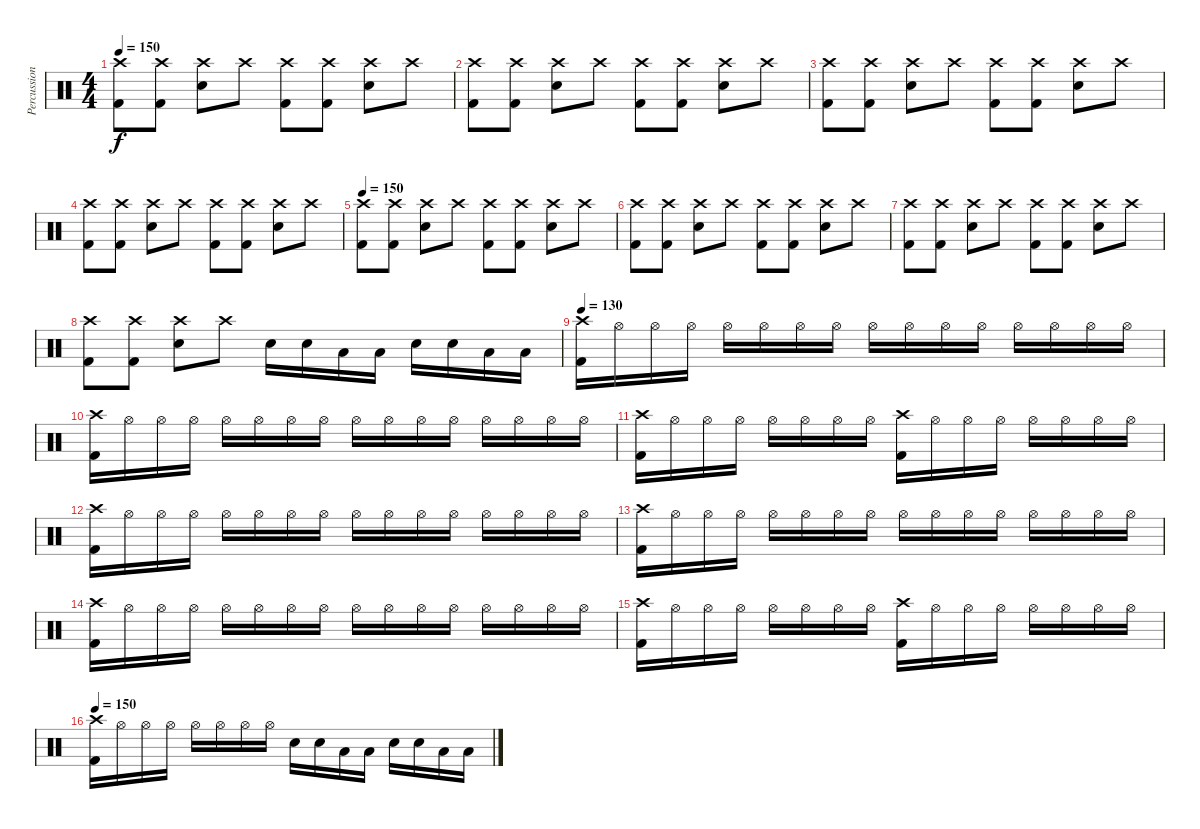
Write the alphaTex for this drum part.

\track ("Percussion" "Percussion") {instrument percussion}
\staff {score}
\articulation defaults
\ts (4 4)
\tempo 150
\clef neutral
\ks c
("Crash high (hit)" "Kick (hit) 2").8{dy f} ("Crash high (hit)" "Kick (hit) 2").8 ("Crash high (hit)" "Electric Snare (hit)").8 "Crash high (hit)".8 ("Crash high (hit)" "Kick (hit) 2").8 ("Crash high (hit)" "Kick (hit) 2").8 ("Crash high (hit)" "Electric Snare (hit)").8 "Crash high (hit)".8 |
("Crash high (hit)" "Kick (hit) 2").8 ("Crash high (hit)" "Kick (hit) 2").8 ("Crash high (hit)" "Electric Snare (hit)").8 "Crash high (hit)".8 ("Crash high (hit)" "Kick (hit) 2").8 ("Crash high (hit)" "Kick (hit) 2").8 ("Crash high (hit)" "Electric Snare (hit)").8 "Crash high (hit)".8 |
("Crash high (hit)" "Kick (hit) 2").8 ("Crash high (hit)" "Kick (hit) 2").8 ("Crash high (hit)" "Electric Snare (hit)").8 "Crash high (hit)".8 ("Crash high (hit)" "Kick (hit) 2").8 ("Crash high (hit)" "Kick (hit) 2").8 ("Crash high (hit)" "Electric Snare (hit)").8 "Crash high (hit)".8 |
("Crash high (hit)" "Kick (hit) 2").8 ("Crash high (hit)" "Kick (hit) 2").8 ("Crash high (hit)" "Electric Snare (hit)").8 "Crash high (hit)".8 ("Crash high (hit)" "Kick (hit) 2").8 ("Crash high (hit)" "Kick (hit) 2").8 ("Crash high (hit)" "Electric Snare (hit)").8 "Crash high (hit)".8 |
\tempo 150
("Crash high (hit)" "Kick (hit) 2").8 ("Crash high (hit)" "Kick (hit) 2").8 ("Crash high (hit)" "Electric Snare (hit)").8 "Crash high (hit)".8 ("Crash high (hit)" "Kick (hit) 2").8 ("Crash high (hit)" "Kick (hit) 2").8 ("Crash high (hit)" "Electric Snare (hit)").8 "Crash high (hit)".8 |
("Crash high (hit)" "Kick (hit) 2").8 ("Crash high (hit)" "Kick (hit) 2").8 ("Crash high (hit)" "Electric Snare (hit)").8 "Crash high (hit)".8 ("Crash high (hit)" "Kick (hit) 2").8 ("Crash high (hit)" "Kick (hit) 2").8 ("Crash high (hit)" "Electric Snare (hit)").8 "Crash high (hit)".8 |
("Crash high (hit)" "Kick (hit) 2").8 ("Crash high (hit)" "Kick (hit) 2").8 ("Crash high (hit)" "Electric Snare (hit)").8 "Crash high (hit)".8 ("Crash high (hit)" "Kick (hit) 2").8 ("Crash high (hit)" "Kick (hit) 2").8 ("Crash high (hit)" "Electric Snare (hit)").8 "Crash high (hit)".8 |
("Crash high (hit)" "Kick (hit) 2").8 ("Crash high (hit)" "Kick (hit) 2").8 ("Crash high (hit)" "Electric Snare (hit)").8 "Crash high (hit)".8 "Electric Snare (hit)".16 "Electric Snare (hit)".16 "Low Tom (hit)".16 "Low Tom (hit)".16 "Electric Snare (hit)".16 "Electric Snare (hit)".16 "Low Tom (hit)".16 "Low Tom (hit)".16 |
\tempo 130
("Crash high (hit)" "Kick (hit) 2").16 "Hi-Hat (open)".16 "Hi-Hat (open)".16 "Hi-Hat (open)".16 "Hi-Hat (open)".16 "Hi-Hat (open)".16 "Hi-Hat (open)".16 "Hi-Hat (open)".16 "Hi-Hat (open)".16 "Hi-Hat (open)".16 "Hi-Hat (open)".16 "Hi-Hat (open)".16 "Hi-Hat (open)".16 "Hi-Hat (open)".16 "Hi-Hat (open)".16 "Hi-Hat (open)".16 |
("Crash high (hit)" "Kick (hit) 2").16 "Hi-Hat (open)".16 "Hi-Hat (open)".16 "Hi-Hat (open)".16 "Hi-Hat (open)".16 "Hi-Hat (open)".16 "Hi-Hat (open)".16 "Hi-Hat (open)".16 "Hi-Hat (open)".16 "Hi-Hat (open)".16 "Hi-Hat (open)".16 "Hi-Hat (open)".16 "Hi-Hat (open)".16 "Hi-Hat (open)".16 "Hi-Hat (open)".16 "Hi-Hat (open)".16 |
("Crash high (hit)" "Kick (hit) 2").16 "Hi-Hat (open)".16 "Hi-Hat (open)".16 "Hi-Hat (open)".16 "Hi-Hat (open)".16 "Hi-Hat (open)".16 "Hi-Hat (open)".16 "Hi-Hat (open)".16 ("Crash high (hit)" "Kick (hit) 2").16 "Hi-Hat (open)".16 "Hi-Hat (open)".16 "Hi-Hat (open)".16 "Hi-Hat (open)".16 "Hi-Hat (open)".16 "Hi-Hat (open)".16 "Hi-Hat (open)".16 |
("Crash high (hit)" "Kick (hit) 2").16 "Hi-Hat (open)".16 "Hi-Hat (open)".16 "Hi-Hat (open)".16 "Hi-Hat (open)".16 "Hi-Hat (open)".16 "Hi-Hat (open)".16 "Hi-Hat (open)".16 "Hi-Hat (open)".16 "Hi-Hat (open)".16 "Hi-Hat (open)".16 "Hi-Hat (open)".16 "Hi-Hat (open)".16 "Hi-Hat (open)".16 "Hi-Hat (open)".16 "Hi-Hat (open)".16 |
("Crash high (hit)" "Kick (hit) 2").16 "Hi-Hat (open)".16 "Hi-Hat (open)".16 "Hi-Hat (open)".16 "Hi-Hat (open)".16 "Hi-Hat (open)".16 "Hi-Hat (open)".16 "Hi-Hat (open)".16 "Hi-Hat (open)".16 "Hi-Hat (open)".16 "Hi-Hat (open)".16 "Hi-Hat (open)".16 "Hi-Hat (open)".16 "Hi-Hat (open)".16 "Hi-Hat (open)".16 "Hi-Hat (open)".16 |
("Crash high (hit)" "Kick (hit) 2").16 "Hi-Hat (open)".16 "Hi-Hat (open)".16 "Hi-Hat (open)".16 "Hi-Hat (open)".16 "Hi-Hat (open)".16 "Hi-Hat (open)".16 "Hi-Hat (open)".16 "Hi-Hat (open)".16 "Hi-Hat (open)".16 "Hi-Hat (open)".16 "Hi-Hat (open)".16 "Hi-Hat (open)".16 "Hi-Hat (open)".16 "Hi-Hat (open)".16 "Hi-Hat (open)".16 |
("Crash high (hit)" "Kick (hit) 2").16 "Hi-Hat (open)".16 "Hi-Hat (open)".16 "Hi-Hat (open)".16 "Hi-Hat (open)".16 "Hi-Hat (open)".16 "Hi-Hat (open)".16 "Hi-Hat (open)".16 ("Crash high (hit)" "Kick (hit) 2").16 "Hi-Hat (open)".16 "Hi-Hat (open)".16 "Hi-Hat (open)".16 "Hi-Hat (open)".16 "Hi-Hat (open)".16 "Hi-Hat (open)".16 "Hi-Hat (open)".16 |
\tempo 150
("Crash high (hit)" "Kick (hit) 2").16 "Hi-Hat (open)".16 "Hi-Hat (open)".16 "Hi-Hat (open)".16 "Hi-Hat (open)".16 "Hi-Hat (open)".16 "Hi-Hat (open)".16 "Hi-Hat (open)".16 "Electric Snare (hit)".16 "Electric Snare (hit)".16 "Low Tom (hit)".16 "Low Tom (hit)".16 "Electric Snare (hit)".16 "Electric Snare (hit)".16 "Low Tom (hit)".16 "Low Tom (hit)".16
